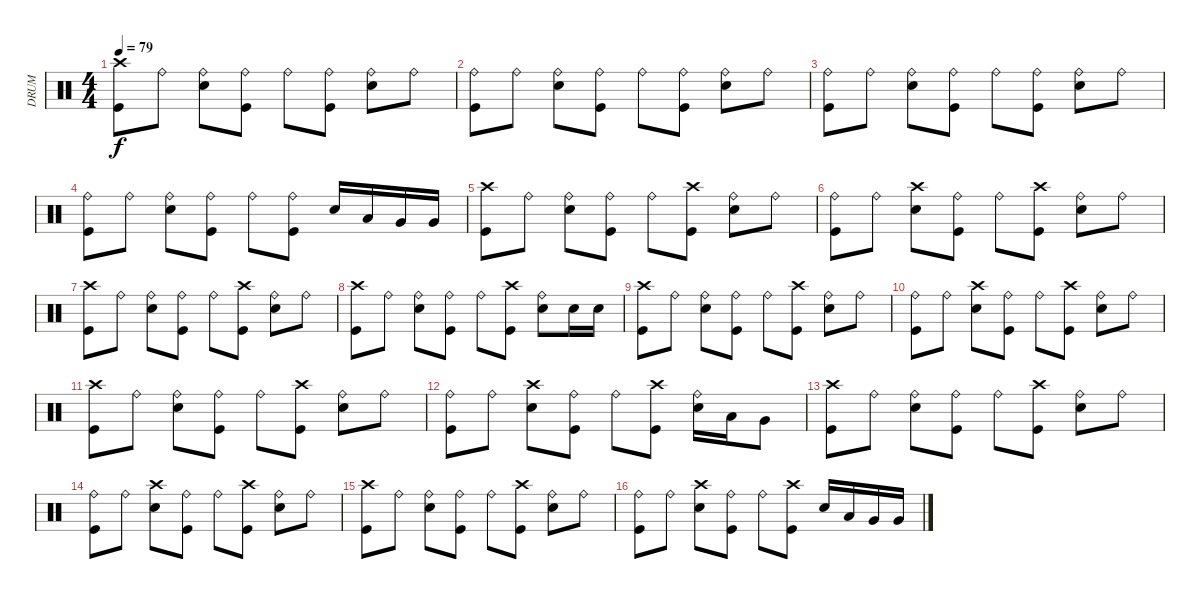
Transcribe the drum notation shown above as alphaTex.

\track ("DRUM" "DRUM") {instrument percussion}
\staff {score}
\articulation defaults
\ts (4 4)
\tempo 79
\clef neutral
\ks c
("Crash high (hit)" "Kick (hit)").8{dy f} "Ride (bell)".8 ("Ride (bell)" "Electric Snare (hit)").8 ("Ride (bell)" "Kick (hit)").8 "Ride (bell)".8 ("Ride (bell)" "Kick (hit)").8 ("Ride (bell)" "Electric Snare (hit)").8 "Ride (bell)".8 |
("Ride (bell)" "Kick (hit)").8 "Ride (bell)".8 ("Ride (bell)" "Electric Snare (hit)").8 ("Ride (bell)" "Kick (hit)").8 "Ride (bell)".8 ("Ride (bell)" "Kick (hit)").8 ("Ride (bell)" "Electric Snare (hit)").8 "Ride (bell)".8 |
("Ride (bell)" "Kick (hit)").8 "Ride (bell)".8 ("Ride (bell)" "Electric Snare (hit)").8 ("Ride (bell)" "Kick (hit)").8 "Ride (bell)".8 ("Ride (bell)" "Kick (hit)").8 ("Ride (bell)" "Electric Snare (hit)").8 "Ride (bell)".8 |
("Ride (bell)" "Kick (hit)").8 "Ride (bell)".8 ("Ride (bell)" "Electric Snare (hit)").8 ("Ride (bell)" "Kick (hit)").8 "Ride (bell)".8 ("Ride (bell)" "Kick (hit)").8 "Electric Snare (hit)".16 "Low Tom (hit)".16 "Very Low Tom (hit)".16 "Very Low Tom (hit)".16 |
("Crash high (hit)" "Kick (hit)").8 "Ride (bell)".8 ("Ride (bell)" "Electric Snare (hit)").8 ("Ride (bell)" "Kick (hit)").8 "Ride (bell)".8 ("Crash high (hit)" "Kick (hit)").8 ("Ride (bell)" "Electric Snare (hit)").8 "Ride (bell)".8 |
("Ride (bell)" "Kick (hit)").8 "Ride (bell)".8 ("Crash high (hit)" "Electric Snare (hit)").8 ("Ride (bell)" "Kick (hit)").8 "Ride (bell)".8 ("Crash high (hit)" "Kick (hit)").8 ("Ride (bell)" "Electric Snare (hit)").8 "Ride (bell)".8 |
("Crash high (hit)" "Kick (hit)").8 "Ride (bell)".8 ("Ride (bell)" "Electric Snare (hit)").8 ("Ride (bell)" "Kick (hit)").8 "Ride (bell)".8 ("Crash high (hit)" "Kick (hit)").8 ("Ride (bell)" "Electric Snare (hit)").8 "Ride (bell)".8 |
("Crash high (hit)" "Kick (hit)").8 "Ride (bell)".8 ("Ride (bell)" "Electric Snare (hit)").8 ("Ride (bell)" "Kick (hit)").8 "Ride (bell)".8 ("Crash high (hit)" "Kick (hit)").8 ("Ride (bell)" "Electric Snare (hit)").8 "Electric Snare (hit)".16 "Electric Snare (hit)".16 |
("Crash high (hit)" "Kick (hit)").8 "Ride (bell)".8 ("Ride (bell)" "Electric Snare (hit)").8 ("Ride (bell)" "Kick (hit)").8 "Ride (bell)".8 ("Crash high (hit)" "Kick (hit)").8 ("Ride (bell)" "Electric Snare (hit)").8 "Ride (bell)".8 |
("Ride (bell)" "Kick (hit)").8 "Ride (bell)".8 ("Crash high (hit)" "Electric Snare (hit)").8 ("Ride (bell)" "Kick (hit)").8 "Ride (bell)".8 ("Crash high (hit)" "Kick (hit)").8 ("Ride (bell)" "Electric Snare (hit)").8 "Ride (bell)".8 |
("Crash high (hit)" "Kick (hit)").8 "Ride (bell)".8 ("Ride (bell)" "Electric Snare (hit)").8 ("Ride (bell)" "Kick (hit)").8 "Ride (bell)".8 ("Crash high (hit)" "Kick (hit)").8 ("Ride (bell)" "Electric Snare (hit)").8 "Ride (bell)".8 |
("Ride (bell)" "Kick (hit)").8 "Ride (bell)".8 ("Crash high (hit)" "Electric Snare (hit)").8 ("Ride (bell)" "Kick (hit)").8 "Ride (bell)".8 ("Crash high (hit)" "Kick (hit)").8 ("Ride (bell)" "Electric Snare (hit)").16 "Low Tom (hit)".16 "Very Low Tom (hit)".8 |
("Crash high (hit)" "Kick (hit)").8 "Ride (bell)".8 ("Ride (bell)" "Electric Snare (hit)").8 ("Ride (bell)" "Kick (hit)").8 "Ride (bell)".8 ("Crash high (hit)" "Kick (hit)").8 ("Ride (bell)" "Electric Snare (hit)").8 "Ride (bell)".8 |
("Ride (bell)" "Kick (hit)").8 "Ride (bell)".8 ("Crash high (hit)" "Electric Snare (hit)").8 ("Ride (bell)" "Kick (hit)").8 "Ride (bell)".8 ("Crash high (hit)" "Kick (hit)").8 ("Ride (bell)" "Electric Snare (hit)").8 "Ride (bell)".8 |
("Crash high (hit)" "Kick (hit)").8 "Ride (bell)".8 ("Ride (bell)" "Electric Snare (hit)").8 ("Ride (bell)" "Kick (hit)").8 "Ride (bell)".8 ("Crash high (hit)" "Kick (hit)").8 ("Ride (bell)" "Electric Snare (hit)").8 "Ride (bell)".8 |
("Ride (bell)" "Kick (hit)").8 "Ride (bell)".8 ("Crash high (hit)" "Electric Snare (hit)").8 ("Ride (bell)" "Kick (hit)").8 "Ride (bell)".8 ("Crash high (hit)" "Kick (hit)").8 "Electric Snare (hit)".16 "Low Tom (hit)".16 "Very Low Tom (hit)".16 "Very Low Tom (hit)".16
